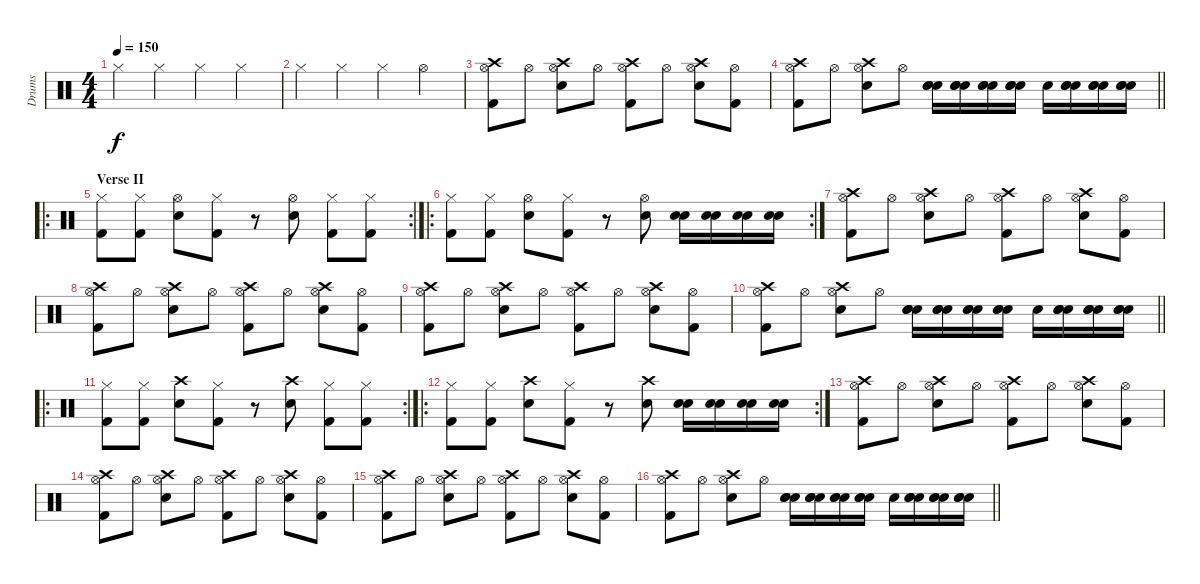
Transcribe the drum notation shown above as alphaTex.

\track ("Drums" "Drums") {instrument percussion}
\staff {score}
\articulation defaults
\ts (4 4)
\tempo 150
\clef neutral
\ks c "Hi-Hat (closed)".4{dy f} "Hi-Hat (closed)".4 "Hi-Hat (closed)".4 "Hi-Hat (closed)".4
|
"Hi-Hat (closed)".4 "Hi-Hat (closed)".4 "Hi-Hat (closed)".4 "Hi-Hat (open)".4 |
("Crash high (hit)" "Hi-Hat (open)" "Kick (hit) 2").8 "Hi-Hat (open)".8 ("Crash high (hit)" "Hi-Hat (open)" "Electric Snare (hit)").8 "Hi-Hat (open)".8 ("Crash high (hit)" "Hi-Hat (open)" "Kick (hit) 2").8 "Hi-Hat (open)".8 ("Crash high (hit)" "Hi-Hat (open)" "Electric Snare (hit)").8 ("Hi-Hat (open)" "Kick (hit) 2").8 |
\barLineRight lightlight
("Crash high (hit)" "Hi-Hat (open)" "Kick (hit) 2").8 "Hi-Hat (open)".8 ("Crash high (hit)" "Hi-Hat (open)" "Electric Snare (hit)").8 "Hi-Hat (open)".8 ("Snare (hit) 2" "Snare (hit) 2" "Electric Snare (hit)").16 ("Snare (hit) 2" "Snare (hit) 2" "Electric Snare (hit)").16 ("Snare (hit) 2" "Snare (hit) 2" "Electric Snare (hit)").16 ("Snare (hit) 2" "Snare (hit) 2" "Electric Snare (hit)").16 "Electric Snare (hit)".16 ("Snare (hit) 2" "Snare (hit) 2" "Electric Snare (hit)").16 ("Snare (hit) 2" "Snare (hit) 2" "Electric Snare (hit)").16 ("Snare (hit) 2" "Snare (hit) 2" "Electric Snare (hit)").16 |
\ro
\rc 2
\section ("" "Verse II")
("Hi-Hat (closed)" "Kick (hit) 2").8 ("Hi-Hat (closed)" "Kick (hit) 2").8 ("Hi-Hat (open)" "Electric Snare (hit)").8 ("Hi-Hat (closed)" "Kick (hit) 2").8 r.8 ("Hi-Hat (open)" "Electric Snare (hit)").8 ("Hi-Hat (closed)" "Kick (hit) 2").8 ("Hi-Hat (closed)" "Kick (hit) 2").8 |
\ro
\rc 2
("Hi-Hat (closed)" "Kick (hit) 2").8 ("Hi-Hat (closed)" "Kick (hit) 2").8 ("Hi-Hat (open)" "Electric Snare (hit)").8 ("Hi-Hat (closed)" "Kick (hit) 2").8 r.8 ("Hi-Hat (open)" "Electric Snare (hit)").8 ("Electric Snare (hit)" "Electric Snare (hit)").16 ("Electric Snare (hit)" "Electric Snare (hit)").16 ("Electric Snare (hit)" "Electric Snare (hit)").16 ("Electric Snare (hit)" "Electric Snare (hit)").16 |
("Crash high (hit)" "Hi-Hat (open)" "Kick (hit) 2").8 "Hi-Hat (open)".8 ("Crash high (hit)" "Hi-Hat (open)" "Electric Snare (hit)").8 "Hi-Hat (open)".8 ("Crash high (hit)" "Hi-Hat (open)" "Kick (hit) 2").8 "Hi-Hat (open)".8 ("Crash high (hit)" "Hi-Hat (open)" "Electric Snare (hit)").8 ("Hi-Hat (open)" "Kick (hit) 2").8 |
("Crash high (hit)" "Hi-Hat (open)" "Kick (hit) 2").8 "Hi-Hat (open)".8 ("Crash high (hit)" "Hi-Hat (open)" "Electric Snare (hit)").8 "Hi-Hat (open)".8 ("Crash high (hit)" "Hi-Hat (open)" "Kick (hit) 2").8 "Hi-Hat (open)".8 ("Crash high (hit)" "Hi-Hat (open)" "Electric Snare (hit)").8 ("Hi-Hat (open)" "Kick (hit) 2").8 |
("Crash high (hit)" "Hi-Hat (open)" "Kick (hit) 2").8 "Hi-Hat (open)".8 ("Crash high (hit)" "Hi-Hat (open)" "Electric Snare (hit)").8 "Hi-Hat (open)".8 ("Crash high (hit)" "Hi-Hat (open)" "Kick (hit) 2").8 "Hi-Hat (open)".8 ("Crash high (hit)" "Hi-Hat (open)" "Electric Snare (hit)").8 ("Hi-Hat (open)" "Kick (hit) 2").8 |
\barLineRight lightlight
("Crash high (hit)" "Hi-Hat (open)" "Kick (hit) 2").8 "Hi-Hat (open)".8 ("Crash high (hit)" "Hi-Hat (open)" "Electric Snare (hit)").8 "Hi-Hat (open)".8 ("Snare (hit) 2" "Snare (hit) 2" "Electric Snare (hit)").16 ("Snare (hit) 2" "Snare (hit) 2" "Electric Snare (hit)").16 ("Snare (hit) 2" "Snare (hit) 2" "Electric Snare (hit)").16 ("Snare (hit) 2" "Snare (hit) 2" "Electric Snare (hit)").16 "Electric Snare (hit)".16 ("Snare (hit) 2" "Snare (hit) 2" "Electric Snare (hit)").16 ("Snare (hit) 2" "Snare (hit) 2" "Electric Snare (hit)").16 ("Snare (hit) 2" "Snare (hit) 2" "Electric Snare (hit)").16 |
\ro
\rc 2
("Hi-Hat (closed)" "Kick (hit) 2").8 ("Hi-Hat (closed)" "Kick (hit) 2").8 ("Crash high (hit)" "Electric Snare (hit)").8 ("Hi-Hat (closed)" "Kick (hit) 2").8 r.8 ("Crash high (hit)" "Electric Snare (hit)").8 ("Hi-Hat (closed)" "Kick (hit) 2").8 ("Hi-Hat (closed)" "Kick (hit) 2").8 |
\ro
\rc 2
("Hi-Hat (closed)" "Kick (hit) 2").8 ("Hi-Hat (closed)" "Kick (hit) 2").8 ("Crash high (hit)" "Electric Snare (hit)").8 ("Hi-Hat (closed)" "Kick (hit) 2").8 r.8 ("Crash high (hit)" "Electric Snare (hit)").8 ("Electric Snare (hit)" "Electric Snare (hit)").16 ("Electric Snare (hit)" "Electric Snare (hit)").16 ("Electric Snare (hit)" "Electric Snare (hit)").16 ("Electric Snare (hit)" "Electric Snare (hit)").16 |
("Crash high (hit)" "Hi-Hat (open)" "Kick (hit) 2").8 "Hi-Hat (open)".8 ("Crash high (hit)" "Hi-Hat (open)" "Electric Snare (hit)").8 "Hi-Hat (open)".8 ("Crash high (hit)" "Hi-Hat (open)" "Kick (hit) 2").8 "Hi-Hat (open)".8 ("Crash high (hit)" "Hi-Hat (open)" "Electric Snare (hit)").8 ("Hi-Hat (open)" "Kick (hit) 2").8 |
("Crash high (hit)" "Hi-Hat (open)" "Kick (hit) 2").8 "Hi-Hat (open)".8 ("Crash high (hit)" "Hi-Hat (open)" "Electric Snare (hit)").8 "Hi-Hat (open)".8 ("Crash high (hit)" "Hi-Hat (open)" "Kick (hit) 2").8 "Hi-Hat (open)".8 ("Crash high (hit)" "Hi-Hat (open)" "Electric Snare (hit)").8 ("Hi-Hat (open)" "Kick (hit) 2").8 |
("Crash high (hit)" "Hi-Hat (open)" "Kick (hit) 2").8 "Hi-Hat (open)".8 ("Crash high (hit)" "Hi-Hat (open)" "Electric Snare (hit)").8 "Hi-Hat (open)".8 ("Crash high (hit)" "Hi-Hat (open)" "Kick (hit) 2").8 "Hi-Hat (open)".8 ("Crash high (hit)" "Hi-Hat (open)" "Electric Snare (hit)").8 ("Hi-Hat (open)" "Kick (hit) 2").8 |
\barLineRight lightlight
("Crash high (hit)" "Hi-Hat (open)" "Kick (hit) 2").8 "Hi-Hat (open)".8 ("Crash high (hit)" "Hi-Hat (open)" "Electric Snare (hit)").8 "Hi-Hat (open)".8 ("Snare (hit) 2" "Snare (hit) 2" "Electric Snare (hit)").16 ("Snare (hit) 2" "Snare (hit) 2" "Electric Snare (hit)").16 ("Snare (hit) 2" "Snare (hit) 2" "Electric Snare (hit)").16 ("Snare (hit) 2" "Snare (hit) 2" "Electric Snare (hit)").16 "Electric Snare (hit)".16 ("Snare (hit) 2" "Snare (hit) 2" "Electric Snare (hit)").16 ("Snare (hit) 2" "Snare (hit) 2" "Electric Snare (hit)").16 ("Snare (hit) 2" "Snare (hit) 2" "Electric Snare (hit)").16
